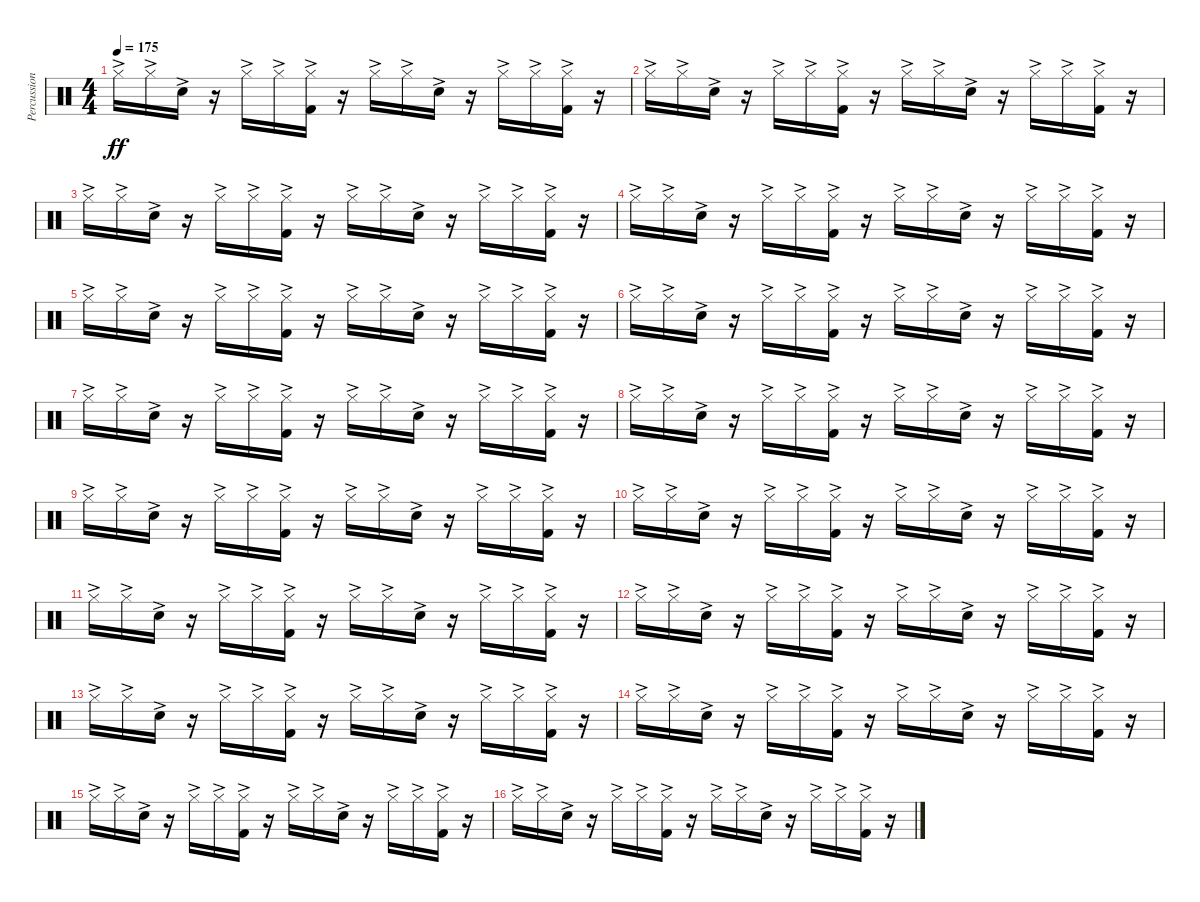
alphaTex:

\track ("Percussion" "Percussion") {instrument percussion}
\staff {score}
\articulation defaults
\ts (4 4)
\tempo 175
\clef neutral
\ks c "Hi-Hat (closed)"{ac}.16{dy ff} "Hi-Hat (closed)"{ac}.16 "Snare (hit) 2"{ac}.16
r.16 "Hi-Hat (closed)"{ac}.16 "Hi-Hat (closed)"{ac}.16 ("Hi-Hat (closed)"{ac} "Kick (hit) 2"{ac}).16 r.16 "Hi-Hat (closed)"{ac}.16 "Hi-Hat (closed)"{ac}.16 "Snare (hit) 2"{ac}.16 r.16 "Hi-Hat (closed)"{ac}.16 "Hi-Hat (closed)"{ac}.16 ("Hi-Hat (closed)"{ac} "Kick (hit) 2"{ac}).16 r.16 |
"Hi-Hat (closed)"{ac}.16 "Hi-Hat (closed)"{ac}.16 "Snare (hit) 2"{ac}.16 r.16 "Hi-Hat (closed)"{ac}.16 "Hi-Hat (closed)"{ac}.16 ("Hi-Hat (closed)"{ac} "Kick (hit) 2"{ac}).16 r.16 "Hi-Hat (closed)"{ac}.16 "Hi-Hat (closed)"{ac}.16 "Snare (hit) 2"{ac}.16 r.16 "Hi-Hat (closed)"{ac}.16 "Hi-Hat (closed)"{ac}.16 ("Hi-Hat (closed)"{ac} "Kick (hit) 2"{ac}).16 r.16 |
"Hi-Hat (closed)"{ac}.16 "Hi-Hat (closed)"{ac}.16 "Snare (hit) 2"{ac}.16 r.16 "Hi-Hat (closed)"{ac}.16 "Hi-Hat (closed)"{ac}.16 ("Hi-Hat (closed)"{ac} "Kick (hit) 2"{ac}).16 r.16 "Hi-Hat (closed)"{ac}.16 "Hi-Hat (closed)"{ac}.16 "Snare (hit) 2"{ac}.16 r.16 "Hi-Hat (closed)"{ac}.16 "Hi-Hat (closed)"{ac}.16 ("Hi-Hat (closed)"{ac} "Kick (hit) 2"{ac}).16 r.16 |
"Hi-Hat (closed)"{ac}.16 "Hi-Hat (closed)"{ac}.16 "Snare (hit) 2"{ac}.16 r.16 "Hi-Hat (closed)"{ac}.16 "Hi-Hat (closed)"{ac}.16 ("Hi-Hat (closed)"{ac} "Kick (hit) 2"{ac}).16 r.16 "Hi-Hat (closed)"{ac}.16 "Hi-Hat (closed)"{ac}.16 "Snare (hit) 2"{ac}.16 r.16 "Hi-Hat (closed)"{ac}.16 "Hi-Hat (closed)"{ac}.16 ("Hi-Hat (closed)"{ac} "Kick (hit) 2"{ac}).16 r.16 |
"Hi-Hat (closed)"{ac}.16 "Hi-Hat (closed)"{ac}.16 "Snare (hit) 2"{ac}.16 r.16 "Hi-Hat (closed)"{ac}.16 "Hi-Hat (closed)"{ac}.16 ("Hi-Hat (closed)"{ac} "Kick (hit) 2"{ac}).16 r.16 "Hi-Hat (closed)"{ac}.16 "Hi-Hat (closed)"{ac}.16 "Snare (hit) 2"{ac}.16 r.16 "Hi-Hat (closed)"{ac}.16 "Hi-Hat (closed)"{ac}.16 ("Hi-Hat (closed)"{ac} "Kick (hit) 2"{ac}).16 r.16 |
"Hi-Hat (closed)"{ac}.16 "Hi-Hat (closed)"{ac}.16 "Snare (hit) 2"{ac}.16 r.16 "Hi-Hat (closed)"{ac}.16 "Hi-Hat (closed)"{ac}.16 ("Hi-Hat (closed)"{ac} "Kick (hit) 2"{ac}).16 r.16 "Hi-Hat (closed)"{ac}.16 "Hi-Hat (closed)"{ac}.16 "Snare (hit) 2"{ac}.16 r.16 "Hi-Hat (closed)"{ac}.16 "Hi-Hat (closed)"{ac}.16 ("Hi-Hat (closed)"{ac} "Kick (hit) 2"{ac}).16 r.16 |
"Hi-Hat (closed)"{ac}.16 "Hi-Hat (closed)"{ac}.16 "Snare (hit) 2"{ac}.16 r.16 "Hi-Hat (closed)"{ac}.16 "Hi-Hat (closed)"{ac}.16 ("Hi-Hat (closed)"{ac} "Kick (hit) 2"{ac}).16 r.16 "Hi-Hat (closed)"{ac}.16 "Hi-Hat (closed)"{ac}.16 "Snare (hit) 2"{ac}.16 r.16 "Hi-Hat (closed)"{ac}.16 "Hi-Hat (closed)"{ac}.16 ("Hi-Hat (closed)"{ac} "Kick (hit) 2"{ac}).16 r.16 |
"Hi-Hat (closed)"{ac}.16 "Hi-Hat (closed)"{ac}.16 "Snare (hit) 2"{ac}.16 r.16 "Hi-Hat (closed)"{ac}.16 "Hi-Hat (closed)"{ac}.16 ("Hi-Hat (closed)"{ac} "Kick (hit) 2"{ac}).16 r.16 "Hi-Hat (closed)"{ac}.16 "Hi-Hat (closed)"{ac}.16 "Snare (hit) 2"{ac}.16 r.16 "Hi-Hat (closed)"{ac}.16 "Hi-Hat (closed)"{ac}.16 ("Hi-Hat (closed)"{ac} "Kick (hit) 2"{ac}).16 r.16 |
"Hi-Hat (closed)"{ac}.16 "Hi-Hat (closed)"{ac}.16 "Snare (hit) 2"{ac}.16 r.16 "Hi-Hat (closed)"{ac}.16 "Hi-Hat (closed)"{ac}.16 ("Hi-Hat (closed)"{ac} "Kick (hit) 2"{ac}).16 r.16 "Hi-Hat (closed)"{ac}.16 "Hi-Hat (closed)"{ac}.16 "Snare (hit) 2"{ac}.16 r.16 "Hi-Hat (closed)"{ac}.16 "Hi-Hat (closed)"{ac}.16 ("Hi-Hat (closed)"{ac} "Kick (hit) 2"{ac}).16 r.16 |
"Hi-Hat (closed)"{ac}.16 "Hi-Hat (closed)"{ac}.16 "Snare (hit) 2"{ac}.16 r.16 "Hi-Hat (closed)"{ac}.16 "Hi-Hat (closed)"{ac}.16 ("Hi-Hat (closed)"{ac} "Kick (hit) 2"{ac}).16 r.16 "Hi-Hat (closed)"{ac}.16 "Hi-Hat (closed)"{ac}.16 "Snare (hit) 2"{ac}.16 r.16 "Hi-Hat (closed)"{ac}.16 "Hi-Hat (closed)"{ac}.16 ("Hi-Hat (closed)"{ac} "Kick (hit) 2"{ac}).16 r.16 |
"Hi-Hat (closed)"{ac}.16 "Hi-Hat (closed)"{ac}.16 "Snare (hit) 2"{ac}.16 r.16 "Hi-Hat (closed)"{ac}.16 "Hi-Hat (closed)"{ac}.16 ("Hi-Hat (closed)"{ac} "Kick (hit) 2"{ac}).16 r.16 "Hi-Hat (closed)"{ac}.16 "Hi-Hat (closed)"{ac}.16 "Snare (hit) 2"{ac}.16 r.16 "Hi-Hat (closed)"{ac}.16 "Hi-Hat (closed)"{ac}.16 ("Hi-Hat (closed)"{ac} "Kick (hit) 2"{ac}).16 r.16 |
"Hi-Hat (closed)"{ac}.16 "Hi-Hat (closed)"{ac}.16 "Snare (hit) 2"{ac}.16 r.16 "Hi-Hat (closed)"{ac}.16 "Hi-Hat (closed)"{ac}.16 ("Hi-Hat (closed)"{ac} "Kick (hit) 2"{ac}).16 r.16 "Hi-Hat (closed)"{ac}.16 "Hi-Hat (closed)"{ac}.16 "Snare (hit) 2"{ac}.16 r.16 "Hi-Hat (closed)"{ac}.16 "Hi-Hat (closed)"{ac}.16 ("Hi-Hat (closed)"{ac} "Kick (hit) 2"{ac}).16 r.16 |
"Hi-Hat (closed)"{ac}.16 "Hi-Hat (closed)"{ac}.16 "Snare (hit) 2"{ac}.16 r.16 "Hi-Hat (closed)"{ac}.16 "Hi-Hat (closed)"{ac}.16 ("Hi-Hat (closed)"{ac} "Kick (hit) 2"{ac}).16 r.16 "Hi-Hat (closed)"{ac}.16 "Hi-Hat (closed)"{ac}.16 "Snare (hit) 2"{ac}.16 r.16 "Hi-Hat (closed)"{ac}.16 "Hi-Hat (closed)"{ac}.16 ("Hi-Hat (closed)"{ac} "Kick (hit) 2"{ac}).16 r.16 |
"Hi-Hat (closed)"{ac}.16 "Hi-Hat (closed)"{ac}.16 "Snare (hit) 2"{ac}.16 r.16 "Hi-Hat (closed)"{ac}.16 "Hi-Hat (closed)"{ac}.16 ("Hi-Hat (closed)"{ac} "Kick (hit) 2"{ac}).16 r.16 "Hi-Hat (closed)"{ac}.16 "Hi-Hat (closed)"{ac}.16 "Snare (hit) 2"{ac}.16 r.16 "Hi-Hat (closed)"{ac}.16 "Hi-Hat (closed)"{ac}.16 ("Hi-Hat (closed)"{ac} "Kick (hit) 2"{ac}).16 r.16 |
"Hi-Hat (closed)"{ac}.16 "Hi-Hat (closed)"{ac}.16 "Snare (hit) 2"{ac}.16 r.16 "Hi-Hat (closed)"{ac}.16 "Hi-Hat (closed)"{ac}.16 ("Hi-Hat (closed)"{ac} "Kick (hit) 2"{ac}).16 r.16 "Hi-Hat (closed)"{ac}.16 "Hi-Hat (closed)"{ac}.16 "Snare (hit) 2"{ac}.16 r.16 "Hi-Hat (closed)"{ac}.16 "Hi-Hat (closed)"{ac}.16 ("Hi-Hat (closed)"{ac} "Kick (hit) 2"{ac}).16 r.16 |
"Hi-Hat (closed)"{ac}.16 "Hi-Hat (closed)"{ac}.16 "Snare (hit) 2"{ac}.16 r.16 "Hi-Hat (closed)"{ac}.16 "Hi-Hat (closed)"{ac}.16 ("Hi-Hat (closed)"{ac} "Kick (hit) 2"{ac}).16 r.16 "Hi-Hat (closed)"{ac}.16 "Hi-Hat (closed)"{ac}.16 "Snare (hit) 2"{ac}.16 r.16 "Hi-Hat (closed)"{ac}.16 "Hi-Hat (closed)"{ac}.16 ("Hi-Hat (closed)"{ac} "Kick (hit) 2"{ac}).16 r.16
